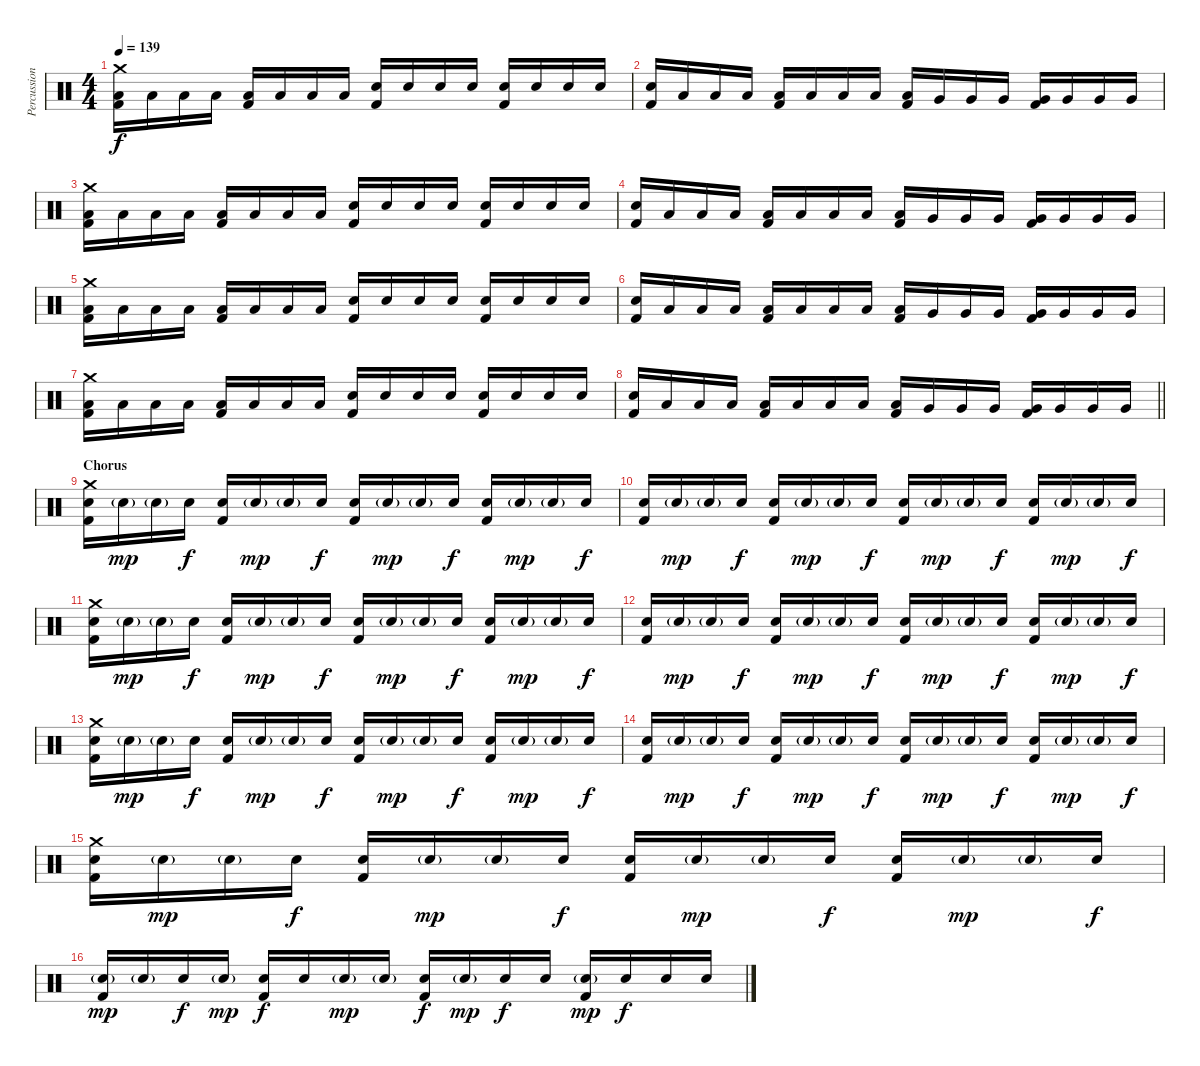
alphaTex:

\track ("Percussion" "Percussion") {instrument percussion}
\staff {score}
\articulation defaults
\ts (4 4)
\tempo 139
\clef neutral
\ks c
("Crash medium (hit)" "Low Floor Tom (hit)" "Kick (hit) 2").16{dy f} "Low Floor Tom (hit)".16 "Low Floor Tom (hit)".16 "Low Floor Tom (hit)".16 ("Low Floor Tom (hit)" "Kick (hit) 2").16 "Low Floor Tom (hit)".16 "Low Floor Tom (hit)".16 "Low Floor Tom (hit)".16 ("Electric Snare (hit)" "Kick (hit) 2").16 "Electric Snare (hit)".16 "Electric Snare (hit)".16 "Electric Snare (hit)".16 ("Electric Snare (hit)" "Kick (hit) 2").16 "Electric Snare (hit)".16 "Electric Snare (hit)".16 "Electric Snare (hit)".16 |
("Electric Snare (hit)" "Kick (hit) 2").16 "Low Tom (hit)".16 "Low Tom (hit)".16 "Low Tom (hit)".16 ("Low Tom (hit)" "Kick (hit) 2").16 "Low Tom (hit)".16 "Low Tom (hit)".16 "Low Tom (hit)".16 ("Low Tom (hit)" "Kick (hit) 2").16 "Very Low Tom (hit)".16 "Very Low Tom (hit)".16 "Very Low Tom (hit)".16 ("Very Low Tom (hit)" "Kick (hit) 2").16 "Very Low Tom (hit)".16 "Very Low Tom (hit)".16 "Very Low Tom (hit)".16 |
("Crash medium (hit)" "Low Floor Tom (hit)" "Kick (hit) 2").16 "Low Floor Tom (hit)".16 "Low Floor Tom (hit)".16 "Low Floor Tom (hit)".16 ("Low Floor Tom (hit)" "Kick (hit) 2").16 "Low Floor Tom (hit)".16 "Low Floor Tom (hit)".16 "Low Floor Tom (hit)".16 ("Electric Snare (hit)" "Kick (hit) 2").16 "Electric Snare (hit)".16 "Electric Snare (hit)".16 "Electric Snare (hit)".16 ("Electric Snare (hit)" "Kick (hit) 2").16 "Electric Snare (hit)".16 "Electric Snare (hit)".16 "Electric Snare (hit)".16 |
("Electric Snare (hit)" "Kick (hit) 2").16 "Low Tom (hit)".16 "Low Tom (hit)".16 "Low Tom (hit)".16 ("Low Tom (hit)" "Kick (hit) 2").16 "Low Tom (hit)".16 "Low Tom (hit)".16 "Low Tom (hit)".16 ("Low Tom (hit)" "Kick (hit) 2").16 "Very Low Tom (hit)".16 "Very Low Tom (hit)".16 "Very Low Tom (hit)".16 ("Very Low Tom (hit)" "Kick (hit) 2").16 "Very Low Tom (hit)".16 "Very Low Tom (hit)".16 "Very Low Tom (hit)".16 |
("Crash medium (hit)" "Low Floor Tom (hit)" "Kick (hit) 2").16 "Low Floor Tom (hit)".16 "Low Floor Tom (hit)".16 "Low Floor Tom (hit)".16 ("Low Floor Tom (hit)" "Kick (hit) 2").16 "Low Floor Tom (hit)".16 "Low Floor Tom (hit)".16 "Low Floor Tom (hit)".16 ("Electric Snare (hit)" "Kick (hit) 2").16 "Electric Snare (hit)".16 "Electric Snare (hit)".16 "Electric Snare (hit)".16 ("Electric Snare (hit)" "Kick (hit) 2").16 "Electric Snare (hit)".16 "Electric Snare (hit)".16 "Electric Snare (hit)".16 |
("Electric Snare (hit)" "Kick (hit) 2").16 "Low Tom (hit)".16 "Low Tom (hit)".16 "Low Tom (hit)".16 ("Low Tom (hit)" "Kick (hit) 2").16 "Low Tom (hit)".16 "Low Tom (hit)".16 "Low Tom (hit)".16 ("Low Tom (hit)" "Kick (hit) 2").16 "Very Low Tom (hit)".16 "Very Low Tom (hit)".16 "Very Low Tom (hit)".16 ("Very Low Tom (hit)" "Kick (hit) 2").16 "Very Low Tom (hit)".16 "Very Low Tom (hit)".16 "Very Low Tom (hit)".16 |
("Crash medium (hit)" "Low Floor Tom (hit)" "Kick (hit) 2").16 "Low Floor Tom (hit)".16 "Low Floor Tom (hit)".16 "Low Floor Tom (hit)".16 ("Low Floor Tom (hit)" "Kick (hit) 2").16 "Low Floor Tom (hit)".16 "Low Floor Tom (hit)".16 "Low Floor Tom (hit)".16 ("Electric Snare (hit)" "Kick (hit) 2").16 "Electric Snare (hit)".16 "Electric Snare (hit)".16 "Electric Snare (hit)".16 ("Electric Snare (hit)" "Kick (hit) 2").16 "Electric Snare (hit)".16 "Electric Snare (hit)".16 "Electric Snare (hit)".16 |
\barLineRight lightlight
("Electric Snare (hit)" "Kick (hit) 2").16 "Low Tom (hit)".16 "Low Tom (hit)".16 "Low Tom (hit)".16 ("Low Tom (hit)" "Kick (hit) 2").16 "Low Tom (hit)".16 "Low Tom (hit)".16 "Low Tom (hit)".16 ("Low Tom (hit)" "Kick (hit) 2").16 "Very Low Tom (hit)".16 "Very Low Tom (hit)".16 "Very Low Tom (hit)".16 ("Very Low Tom (hit)" "Kick (hit) 2").16 "Very Low Tom (hit)".16 "Very Low Tom (hit)".16 "Very Low Tom (hit)".16 |
\section ("" "Chorus")
("Crash medium (hit)" "Snare (hit) 2" "Kick (hit) 2").16 "Snare (hit) 2"{g}.16{dy mp} "Snare (hit) 2"{g}.16 "Snare (hit) 2".16{dy f} ("Snare (hit) 2" "Kick (hit) 2").16 "Snare (hit) 2"{g}.16{dy mp} "Snare (hit) 2"{g}.16 "Snare (hit) 2".16{dy f} ("Snare (hit) 2" "Kick (hit) 2").16 "Snare (hit) 2"{g}.16{dy mp} "Snare (hit) 2"{g}.16 "Snare (hit) 2".16{dy f} ("Snare (hit) 2" "Kick (hit) 2").16 "Snare (hit) 2"{g}.16{dy mp} "Snare (hit) 2"{g}.16 "Snare (hit) 2".16{dy f} |
("Snare (hit) 2" "Kick (hit) 2").16 "Snare (hit) 2"{g}.16{dy mp} "Snare (hit) 2"{g}.16 "Snare (hit) 2".16{dy f} ("Snare (hit) 2" "Kick (hit) 2").16 "Snare (hit) 2"{g}.16{dy mp} "Snare (hit) 2"{g}.16 "Snare (hit) 2".16{dy f} ("Snare (hit) 2" "Kick (hit) 2").16 "Snare (hit) 2"{g}.16{dy mp} "Snare (hit) 2"{g}.16 "Snare (hit) 2".16{dy f} ("Snare (hit) 2" "Kick (hit) 2").16 "Snare (hit) 2"{g}.16{dy mp} "Snare (hit) 2"{g}.16 "Snare (hit) 2".16{dy f} |
("Crash medium (hit)" "Snare (hit) 2" "Kick (hit) 2").16 "Snare (hit) 2"{g}.16{dy mp} "Snare (hit) 2"{g}.16 "Snare (hit) 2".16{dy f} ("Snare (hit) 2" "Kick (hit) 2").16 "Snare (hit) 2"{g}.16{dy mp} "Snare (hit) 2"{g}.16 "Snare (hit) 2".16{dy f} ("Snare (hit) 2" "Kick (hit) 2").16 "Snare (hit) 2"{g}.16{dy mp} "Snare (hit) 2"{g}.16 "Snare (hit) 2".16{dy f} ("Snare (hit) 2" "Kick (hit) 2").16 "Snare (hit) 2"{g}.16{dy mp} "Snare (hit) 2"{g}.16 "Snare (hit) 2".16{dy f} |
("Snare (hit) 2" "Kick (hit) 2").16 "Snare (hit) 2"{g}.16{dy mp} "Snare (hit) 2"{g}.16 "Snare (hit) 2".16{dy f} ("Snare (hit) 2" "Kick (hit) 2").16 "Snare (hit) 2"{g}.16{dy mp} "Snare (hit) 2"{g}.16 "Snare (hit) 2".16{dy f} ("Snare (hit) 2" "Kick (hit) 2").16 "Snare (hit) 2"{g}.16{dy mp} "Snare (hit) 2"{g}.16 "Snare (hit) 2".16{dy f} ("Snare (hit) 2" "Kick (hit) 2").16 "Snare (hit) 2"{g}.16{dy mp} "Snare (hit) 2"{g}.16 "Snare (hit) 2".16{dy f} |
("Crash medium (hit)" "Snare (hit) 2" "Kick (hit) 2").16 "Snare (hit) 2"{g}.16{dy mp} "Snare (hit) 2"{g}.16 "Snare (hit) 2".16{dy f} ("Snare (hit) 2" "Kick (hit) 2").16 "Snare (hit) 2"{g}.16{dy mp} "Snare (hit) 2"{g}.16 "Snare (hit) 2".16{dy f} ("Snare (hit) 2" "Kick (hit) 2").16 "Snare (hit) 2"{g}.16{dy mp} "Snare (hit) 2"{g}.16 "Snare (hit) 2".16{dy f} ("Snare (hit) 2" "Kick (hit) 2").16 "Snare (hit) 2"{g}.16{dy mp} "Snare (hit) 2"{g}.16 "Snare (hit) 2".16{dy f} |
("Snare (hit) 2" "Kick (hit) 2").16 "Snare (hit) 2"{g}.16{dy mp} "Snare (hit) 2"{g}.16 "Snare (hit) 2".16{dy f} ("Snare (hit) 2" "Kick (hit) 2").16 "Snare (hit) 2"{g}.16{dy mp} "Snare (hit) 2"{g}.16 "Snare (hit) 2".16{dy f} ("Snare (hit) 2" "Kick (hit) 2").16 "Snare (hit) 2"{g}.16{dy mp} "Snare (hit) 2"{g}.16 "Snare (hit) 2".16{dy f} ("Snare (hit) 2" "Kick (hit) 2").16 "Snare (hit) 2"{g}.16{dy mp} "Snare (hit) 2"{g}.16 "Snare (hit) 2".16{dy f} |
("Crash medium (hit)" "Snare (hit) 2" "Kick (hit) 2").16 "Snare (hit) 2"{g}.16{dy mp} "Snare (hit) 2"{g}.16 "Snare (hit) 2".16{dy f} ("Snare (hit) 2" "Kick (hit) 2").16 "Snare (hit) 2"{g}.16{dy mp} "Snare (hit) 2"{g}.16 "Snare (hit) 2".16{dy f} ("Snare (hit) 2" "Kick (hit) 2").16 "Snare (hit) 2"{g}.16{dy mp} "Snare (hit) 2"{g}.16 "Snare (hit) 2".16{dy f} ("Snare (hit) 2" "Kick (hit) 2").16 "Snare (hit) 2"{g}.16{dy mp} "Snare (hit) 2"{g}.16 "Snare (hit) 2".16{dy f} |
("Snare (hit) 2"{g} "Kick (hit) 2").16{dy mp} "Snare (hit) 2"{g}.16 "Snare (hit) 2".16{dy f} "Snare (hit) 2"{g}.16{dy mp} ("Snare (hit) 2" "Kick (hit) 2").16{dy f} "Snare (hit) 2".16 "Snare (hit) 2"{g}.16{dy mp} "Snare (hit) 2"{g}.16 ("Snare (hit) 2" "Kick (hit) 2").16{dy f} "Snare (hit) 2"{g}.16{dy mp} "Snare (hit) 2".16{dy f} "Snare (hit) 2".16 ("Snare (hit) 2"{g} "Kick (hit) 2").16{dy mp} "Snare (hit) 2".16{dy f} "Snare (hit) 2".16 "Snare (hit) 2".16
